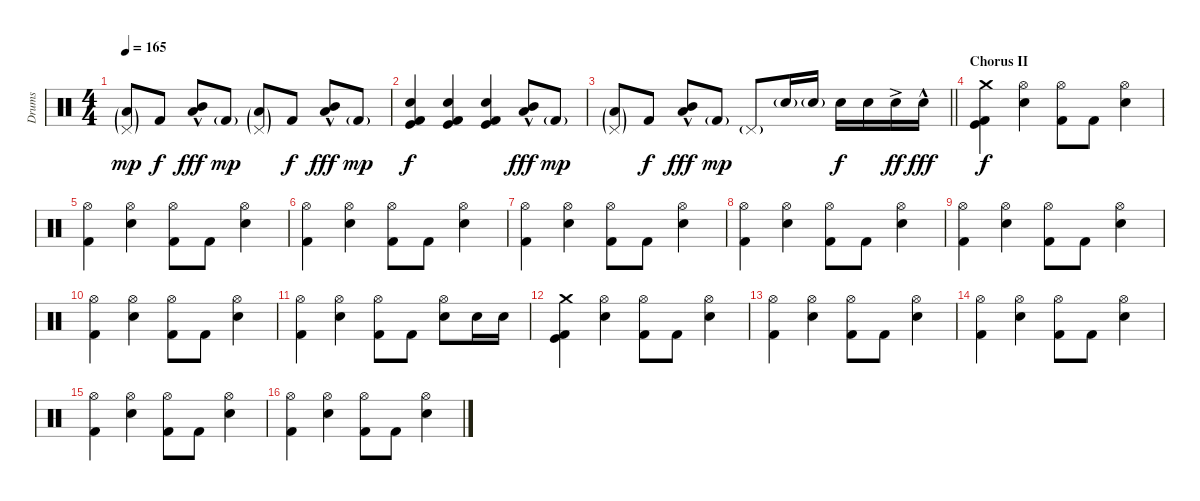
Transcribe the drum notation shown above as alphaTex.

\track ("Drums" "Drums") {instrument percussion}
\staff {score}
\articulation defaults
\ts (4 4)
\tempo 165
\clef neutral
\ks c
("Low Floor Tom (hit)"{g} "Pedal Hi-Hat (hit)"{g}).8{dy mp} "Kick (hit) 2".8{dy f} ("Mid Tom (hit)"{hac} "Low Floor Tom (hit)").8{dy fff} "Kick (hit) 2"{g}.8{dy mp} ("Low Floor Tom (hit)"{g} "Pedal Hi-Hat (hit)"{g}).8 "Kick (hit) 2".8{dy f} ("Mid Tom (hit)"{hac} "Low Floor Tom (hit)").8{dy fff} "Kick (hit) 2"{g}.8{dy mp} |
("Kick (hit) 2" "Kick (hit)" "Electric Snare (hit)").4{dy f} ("Kick (hit) 2" "Kick (hit)" "Electric Snare (hit)").4 ("Kick (hit) 2" "Kick (hit)" "Electric Snare (hit)").4 ("Mid Tom (hit)"{hac} "Low Floor Tom (hit)").8{dy fff} "Kick (hit) 2"{g}.8{dy mp} |
\barLineRight lightlight
("Low Floor Tom (hit)"{g} "Pedal Hi-Hat (hit)"{g}).8 "Kick (hit) 2".8{dy f} ("Mid Tom (hit)"{hac} "Low Floor Tom (hit)").8{dy fff} "Kick (hit) 2"{g}.8{dy mp} "Pedal Hi-Hat (hit)"{g}.8 "Electric Snare (hit)"{g}.16 "Electric Snare (hit)"{g}.16 "Electric Snare (hit)".16{dy f} "Electric Snare (hit)".16 "Electric Snare (hit)"{ac}.16{dy ff} "Electric Snare (hit)"{hac}.16{dy fff} |
\section ("" "Chorus II")
("Crash medium (hit)" "Kick (hit) 2" "Kick (hit)").4{dy f} ("Hi-Hat (open)" "Electric Snare (hit)").4 ("Hi-Hat (open)" "Kick (hit) 2").8 "Kick (hit) 2".8 ("Hi-Hat (open)" "Electric Snare (hit)").4 |
("Hi-Hat (open)" "Kick (hit) 2").4 ("Hi-Hat (open)" "Electric Snare (hit)").4 ("Hi-Hat (open)" "Kick (hit) 2").8 "Kick (hit) 2".8 ("Hi-Hat (open)" "Electric Snare (hit)").4 |
("Hi-Hat (open)" "Kick (hit) 2").4 ("Hi-Hat (open)" "Electric Snare (hit)").4 ("Hi-Hat (open)" "Kick (hit) 2").8 "Kick (hit) 2".8 ("Hi-Hat (open)" "Electric Snare (hit)").4 |
("Hi-Hat (open)" "Kick (hit) 2").4 ("Hi-Hat (open)" "Electric Snare (hit)").4 ("Hi-Hat (open)" "Kick (hit) 2").8 "Kick (hit) 2".8 ("Hi-Hat (open)" "Electric Snare (hit)").4 |
("Hi-Hat (open)" "Kick (hit) 2").4 ("Hi-Hat (open)" "Electric Snare (hit)").4 ("Hi-Hat (open)" "Kick (hit) 2").8 "Kick (hit) 2".8 ("Hi-Hat (open)" "Electric Snare (hit)").4 |
("Hi-Hat (open)" "Kick (hit) 2").4 ("Hi-Hat (open)" "Electric Snare (hit)").4 ("Hi-Hat (open)" "Kick (hit) 2").8 "Kick (hit) 2".8 ("Hi-Hat (open)" "Electric Snare (hit)").4 |
("Hi-Hat (open)" "Kick (hit) 2").4 ("Hi-Hat (open)" "Electric Snare (hit)").4 ("Hi-Hat (open)" "Kick (hit) 2").8 "Kick (hit) 2".8 ("Hi-Hat (open)" "Electric Snare (hit)").4 |
("Hi-Hat (open)" "Kick (hit) 2").4 ("Hi-Hat (open)" "Electric Snare (hit)").4 ("Hi-Hat (open)" "Kick (hit) 2").8 "Kick (hit) 2".8 ("Hi-Hat (open)" "Electric Snare (hit)").8 "Electric Snare (hit)".16 "Electric Snare (hit)".16 |
("Crash medium (hit)" "Kick (hit) 2" "Kick (hit)").4 ("Hi-Hat (open)" "Electric Snare (hit)").4 ("Hi-Hat (open)" "Kick (hit) 2").8 "Kick (hit) 2".8 ("Hi-Hat (open)" "Electric Snare (hit)").4 |
("Hi-Hat (open)" "Kick (hit) 2").4 ("Hi-Hat (open)" "Electric Snare (hit)").4 ("Hi-Hat (open)" "Kick (hit) 2").8 "Kick (hit) 2".8 ("Hi-Hat (open)" "Electric Snare (hit)").4 |
("Hi-Hat (open)" "Kick (hit) 2").4 ("Hi-Hat (open)" "Electric Snare (hit)").4 ("Hi-Hat (open)" "Kick (hit) 2").8 "Kick (hit) 2".8 ("Hi-Hat (open)" "Electric Snare (hit)").4 |
("Hi-Hat (open)" "Kick (hit) 2").4 ("Hi-Hat (open)" "Electric Snare (hit)").4 ("Hi-Hat (open)" "Kick (hit) 2").8 "Kick (hit) 2".8 ("Hi-Hat (open)" "Electric Snare (hit)").4 |
("Hi-Hat (open)" "Kick (hit) 2").4 ("Hi-Hat (open)" "Electric Snare (hit)").4 ("Hi-Hat (open)" "Kick (hit) 2").8 "Kick (hit) 2".8 ("Hi-Hat (open)" "Electric Snare (hit)").4
